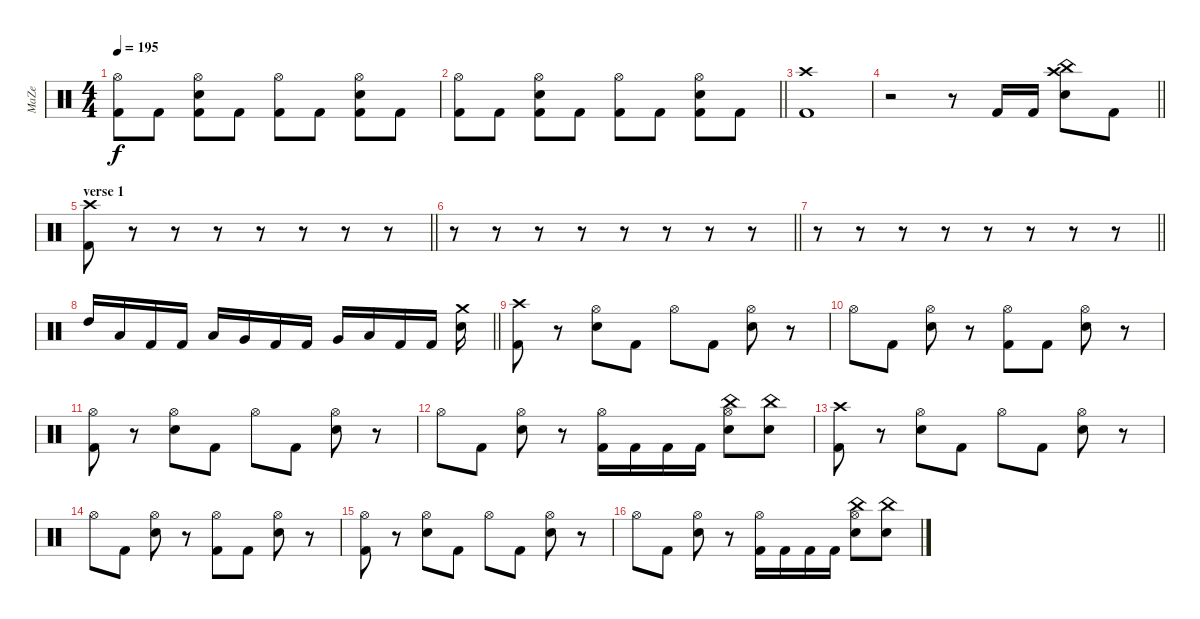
\track ("MaZe" "MaZe") {instrument percussion}
\staff {score}
\articulation defaults
\ts (4 4)
\tempo 195
\clef neutral
\ks c
("Hi-Hat (open)" "Kick (hit) 2").8{dy f} "Kick (hit) 2".8 ("Snare (hit) 2" "Hi-Hat (open)" "Kick (hit) 2").8 "Kick (hit) 2".8 ("Hi-Hat (open)" "Kick (hit) 2").8 "Kick (hit) 2".8 ("Snare (hit) 2" "Hi-Hat (open)" "Kick (hit) 2").8 "Kick (hit) 2".8 |
\barLineRight lightlight
("Hi-Hat (open)" "Kick (hit) 2").8 "Kick (hit) 2".8 ("Snare (hit) 2" "Hi-Hat (open)" "Kick (hit) 2").8 "Kick (hit) 2".8 ("Hi-Hat (open)" "Kick (hit) 2").8 "Kick (hit) 2".8 ("Snare (hit) 2" "Hi-Hat (open)" "Kick (hit) 2").8 "Kick (hit) 2".8 |
("Crash high (hit)" "Kick (hit) 2").1 |
\barLineRight lightlight
r.2 r.8 "Kick (hit) 2".16 "Kick (hit) 2".16 ("Crash high (hit)" "China (hit)" "Snare (hit) 2").8 "Kick (hit) 2".8 |
\section ("" "verse 1")
\barLineRight lightlight
("Crash high (hit)" "Kick (hit) 2").8 r.8 r.8 r.8 r.8 r.8 r.8 r.8 |
\barLineRight lightlight
r.8 r.8 r.8 r.8 r.8 r.8 r.8 r.8 |
\barLineRight lightlight
r.8 r.8 r.8 r.8 r.8 r.8 r.8 r.8 |
\barLineRight lightlight "High Tom (hit)".16 "Low Tom (hit)".16 "Kick (hit) 2".16 "Kick (hit) 2".16 "Low Tom (hit)".16 "Very Low Tom (hit)".16 "Kick (hit) 2".16 "Kick (hit) 2".16 "Very Low Tom (hit)".16 "Low Floor Tom (hit)".16 "Kick (hit) 2".16 "Kick (hit) 2".16
("Crash medium (hit)" "Snare (hit) 2").16 |
("Crash high (hit)" "Kick (hit) 2").8 r.8 ("Snare (hit) 2" "Hi-Hat (open)").8 "Kick (hit) 2".8 "Hi-Hat (open)".8 "Kick (hit) 2".8 ("Snare (hit) 2" "Hi-Hat (open)").8 r.8 |
"Hi-Hat (open)".8 "Kick (hit) 2".8 ("Snare (hit) 2" "Hi-Hat (open)").8 r.8 ("Hi-Hat (open)" "Kick (hit) 2").8 "Kick (hit) 2".8 ("Snare (hit) 2" "Hi-Hat (open)").8 r.8 |
("Hi-Hat (open)" "Kick (hit) 2").8 r.8 ("Snare (hit) 2" "Hi-Hat (open)").8 "Kick (hit) 2".8 "Hi-Hat (open)".8 "Kick (hit) 2".8 ("Snare (hit) 2" "Hi-Hat (open)").8 r.8 |
"Hi-Hat (open)".8 "Kick (hit) 2".8 ("Snare (hit) 2" "Hi-Hat (open)").8 r.8 ("Hi-Hat (open)" "Kick (hit) 2").16 "Kick (hit) 2".16 "Kick (hit) 2".16 "Kick (hit) 2".16 ("China (hit)" "Snare (hit) 2" "Hi-Hat (open)").8 ("China (hit)" "Snare (hit) 2").8 |
("Crash high (hit)" "Kick (hit) 2").8 r.8 ("Snare (hit) 2" "Hi-Hat (open)").8 "Kick (hit) 2".8 "Hi-Hat (open)".8 "Kick (hit) 2".8 ("Snare (hit) 2" "Hi-Hat (open)").8 r.8 |
"Hi-Hat (open)".8 "Kick (hit) 2".8 ("Snare (hit) 2" "Hi-Hat (open)").8 r.8 ("Hi-Hat (open)" "Kick (hit) 2").8 "Kick (hit) 2".8 ("Snare (hit) 2" "Hi-Hat (open)").8 r.8 |
("Hi-Hat (open)" "Kick (hit) 2").8 r.8 ("Snare (hit) 2" "Hi-Hat (open)").8 "Kick (hit) 2".8 "Hi-Hat (open)".8 "Kick (hit) 2".8 ("Snare (hit) 2" "Hi-Hat (open)").8 r.8 |
"Hi-Hat (open)".8 "Kick (hit) 2".8 ("Snare (hit) 2" "Hi-Hat (open)").8 r.8 ("Hi-Hat (open)" "Kick (hit) 2").16 "Kick (hit) 2".16 "Kick (hit) 2".16 "Kick (hit) 2".16 ("China (hit)" "Snare (hit) 2" "Hi-Hat (open)").8 ("China (hit)" "Snare (hit) 2").8
